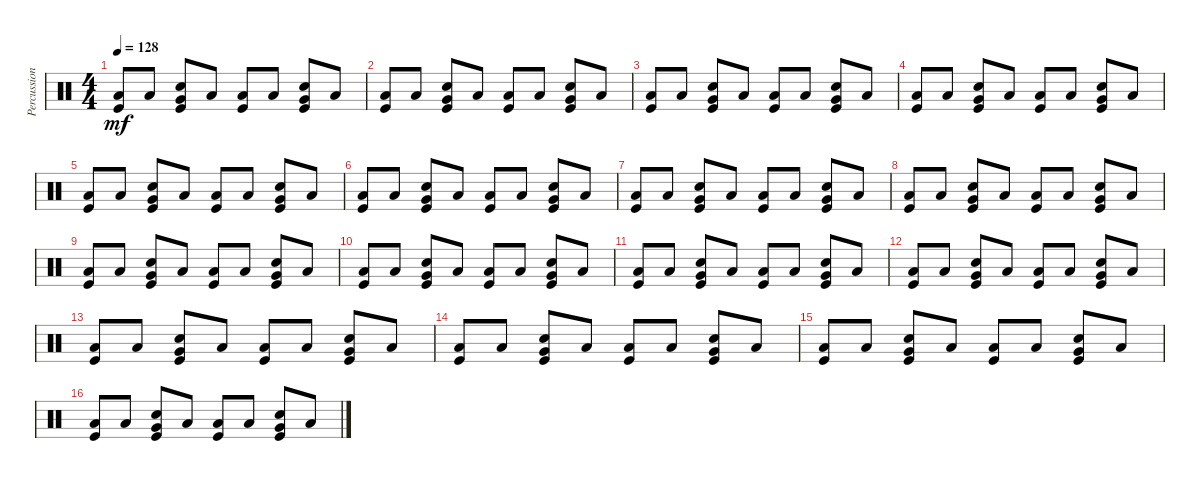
\track ("Percussions" "Percussion") {instrument percussion}
\staff {score}
\articulation defaults
\ts (4 4)
\tempo 128
\clef neutral
\ks c
("Low Floor Tom (hit)" "Kick (hit)").8{dy mf} "Low Floor Tom (hit)".8 ("Very Low Tom (hit)" "Snare (hit) 2" "Kick (hit)").8 "Low Floor Tom (hit)".8 ("Low Floor Tom (hit)" "Kick (hit)").8 "Low Floor Tom (hit)".8 ("Very Low Tom (hit)" "Snare (hit) 2" "Kick (hit)").8 "Low Floor Tom (hit)".8 |
("Low Floor Tom (hit)" "Kick (hit)").8 "Low Floor Tom (hit)".8 ("Very Low Tom (hit)" "Snare (hit) 2" "Kick (hit)").8 "Low Floor Tom (hit)".8 ("Low Floor Tom (hit)" "Kick (hit)").8 "Low Floor Tom (hit)".8 ("Very Low Tom (hit)" "Snare (hit) 2" "Kick (hit)").8 "Low Floor Tom (hit)".8 |
("Low Floor Tom (hit)" "Kick (hit)").8 "Low Floor Tom (hit)".8 ("Very Low Tom (hit)" "Snare (hit) 2" "Kick (hit)").8 "Low Floor Tom (hit)".8 ("Low Floor Tom (hit)" "Kick (hit)").8 "Low Floor Tom (hit)".8 ("Very Low Tom (hit)" "Snare (hit) 2" "Kick (hit)").8 "Low Floor Tom (hit)".8 |
("Low Floor Tom (hit)" "Kick (hit)").8 "Low Floor Tom (hit)".8 ("Very Low Tom (hit)" "Snare (hit) 2" "Kick (hit)").8 "Low Floor Tom (hit)".8 ("Low Floor Tom (hit)" "Kick (hit)").8 "Low Floor Tom (hit)".8 ("Very Low Tom (hit)" "Snare (hit) 2" "Kick (hit)").8 "Low Floor Tom (hit)".8 |
("Low Floor Tom (hit)" "Kick (hit)").8 "Low Floor Tom (hit)".8 ("Very Low Tom (hit)" "Snare (hit) 2" "Kick (hit)").8 "Low Floor Tom (hit)".8 ("Low Floor Tom (hit)" "Kick (hit)").8 "Low Floor Tom (hit)".8 ("Very Low Tom (hit)" "Snare (hit) 2" "Kick (hit)").8 "Low Floor Tom (hit)".8 |
("Low Floor Tom (hit)" "Kick (hit)").8 "Low Floor Tom (hit)".8 ("Very Low Tom (hit)" "Snare (hit) 2" "Kick (hit)").8 "Low Floor Tom (hit)".8 ("Low Floor Tom (hit)" "Kick (hit)").8 "Low Floor Tom (hit)".8 ("Very Low Tom (hit)" "Snare (hit) 2" "Kick (hit)").8 "Low Floor Tom (hit)".8 |
("Low Floor Tom (hit)" "Kick (hit)").8 "Low Floor Tom (hit)".8 ("Very Low Tom (hit)" "Snare (hit) 2" "Kick (hit)").8 "Low Floor Tom (hit)".8 ("Low Floor Tom (hit)" "Kick (hit)").8 "Low Floor Tom (hit)".8 ("Very Low Tom (hit)" "Snare (hit) 2" "Kick (hit)").8 "Low Floor Tom (hit)".8 |
("Low Floor Tom (hit)" "Kick (hit)").8 "Low Floor Tom (hit)".8 ("Very Low Tom (hit)" "Snare (hit) 2" "Kick (hit)").8 "Low Floor Tom (hit)".8 ("Low Floor Tom (hit)" "Kick (hit)").8 "Low Floor Tom (hit)".8 ("Very Low Tom (hit)" "Snare (hit) 2" "Kick (hit)").8 "Low Floor Tom (hit)".8 |
("Low Floor Tom (hit)" "Kick (hit)").8 "Low Floor Tom (hit)".8 ("Very Low Tom (hit)" "Snare (hit) 2" "Kick (hit)").8 "Low Floor Tom (hit)".8 ("Low Floor Tom (hit)" "Kick (hit)").8 "Low Floor Tom (hit)".8 ("Very Low Tom (hit)" "Snare (hit) 2" "Kick (hit)").8 "Low Floor Tom (hit)".8 |
("Low Floor Tom (hit)" "Kick (hit)").8 "Low Floor Tom (hit)".8 ("Very Low Tom (hit)" "Snare (hit) 2" "Kick (hit)").8 "Low Floor Tom (hit)".8 ("Low Floor Tom (hit)" "Kick (hit)").8 "Low Floor Tom (hit)".8 ("Very Low Tom (hit)" "Snare (hit) 2" "Kick (hit)").8 "Low Floor Tom (hit)".8 |
("Low Floor Tom (hit)" "Kick (hit)").8 "Low Floor Tom (hit)".8 ("Very Low Tom (hit)" "Snare (hit) 2" "Kick (hit)").8 "Low Floor Tom (hit)".8 ("Low Floor Tom (hit)" "Kick (hit)").8 "Low Floor Tom (hit)".8 ("Very Low Tom (hit)" "Snare (hit) 2" "Kick (hit)").8 "Low Floor Tom (hit)".8 |
("Low Floor Tom (hit)" "Kick (hit)").8 "Low Floor Tom (hit)".8 ("Very Low Tom (hit)" "Snare (hit) 2" "Kick (hit)").8 "Low Floor Tom (hit)".8 ("Low Floor Tom (hit)" "Kick (hit)").8 "Low Floor Tom (hit)".8 ("Very Low Tom (hit)" "Snare (hit) 2" "Kick (hit)").8 "Low Floor Tom (hit)".8 |
("Low Floor Tom (hit)" "Kick (hit)").8 "Low Floor Tom (hit)".8 ("Very Low Tom (hit)" "Snare (hit) 2" "Kick (hit)").8 "Low Floor Tom (hit)".8 ("Low Floor Tom (hit)" "Kick (hit)").8 "Low Floor Tom (hit)".8 ("Very Low Tom (hit)" "Snare (hit) 2" "Kick (hit)").8 "Low Floor Tom (hit)".8 |
("Low Floor Tom (hit)" "Kick (hit)").8 "Low Floor Tom (hit)".8 ("Very Low Tom (hit)" "Snare (hit) 2" "Kick (hit)").8 "Low Floor Tom (hit)".8 ("Low Floor Tom (hit)" "Kick (hit)").8 "Low Floor Tom (hit)".8 ("Very Low Tom (hit)" "Snare (hit) 2" "Kick (hit)").8 "Low Floor Tom (hit)".8 |
("Low Floor Tom (hit)" "Kick (hit)").8 "Low Floor Tom (hit)".8 ("Very Low Tom (hit)" "Snare (hit) 2" "Kick (hit)").8 "Low Floor Tom (hit)".8 ("Low Floor Tom (hit)" "Kick (hit)").8 "Low Floor Tom (hit)".8 ("Very Low Tom (hit)" "Snare (hit) 2" "Kick (hit)").8 "Low Floor Tom (hit)".8 |
("Low Floor Tom (hit)" "Kick (hit)").8 "Low Floor Tom (hit)".8 ("Very Low Tom (hit)" "Snare (hit) 2" "Kick (hit)").8 "Low Floor Tom (hit)".8 ("Low Floor Tom (hit)" "Kick (hit)").8 "Low Floor Tom (hit)".8 ("Very Low Tom (hit)" "Snare (hit) 2" "Kick (hit)").8 "Low Floor Tom (hit)".8
